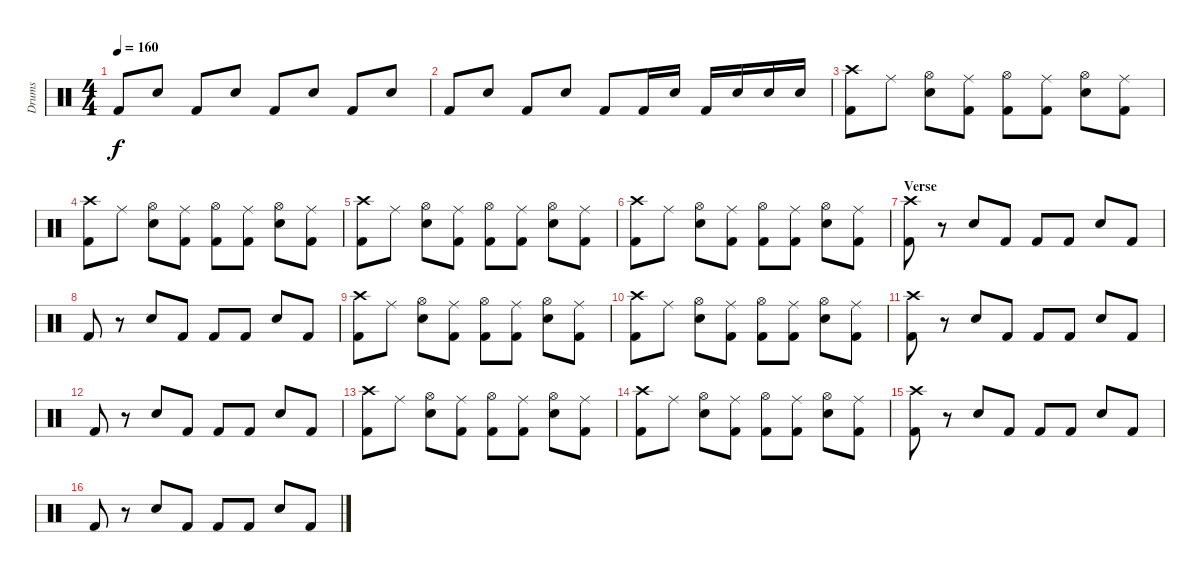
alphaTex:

\track ("Drums" "Drums") {instrument percussion}
\staff {score}
\articulation defaults
\ts (4 4)
\tempo 160
\clef neutral
\ks c "Kick (hit) 2".8{dy f} "Electric Snare (hit)".8 "Kick (hit) 2".8 "Electric Snare (hit)".8 "Kick (hit) 2".8 "Electric Snare (hit)".8 "Kick (hit) 2".8 "Electric Snare (hit)".8
|
"Kick (hit) 2".8 "Electric Snare (hit)".8 "Kick (hit) 2".8 "Electric Snare (hit)".8 "Kick (hit) 2".8 "Kick (hit) 2".16 "Electric Snare (hit)".16 "Kick (hit) 2".16 "Electric Snare (hit)".16 "Snare (hit) 2".16 "Electric Snare (hit)".16 |
("Kick (hit) 2" "Crash high (hit)").8 "Ride (middle)".8 ("Electric Snare (hit)" "Hi-Hat (open)").8 ("Kick (hit) 2" "Ride (middle)").8 ("Kick (hit) 2" "Hi-Hat (open)").8 ("Kick (hit) 2" "Ride (middle)").8 ("Electric Snare (hit)" "Hi-Hat (open)").8 ("Kick (hit) 2" "Ride (middle)").8 |
("Kick (hit) 2" "Crash high (hit)").8 "Ride (middle)".8 ("Electric Snare (hit)" "Hi-Hat (open)").8 ("Kick (hit) 2" "Ride (middle)").8 ("Kick (hit) 2" "Hi-Hat (open)").8 ("Kick (hit) 2" "Ride (middle)").8 ("Electric Snare (hit)" "Hi-Hat (open)").8 ("Kick (hit) 2" "Ride (middle)").8 |
("Kick (hit) 2" "Crash high (hit)").8 "Ride (middle)".8 ("Electric Snare (hit)" "Hi-Hat (open)").8 ("Kick (hit) 2" "Ride (middle)").8 ("Kick (hit) 2" "Hi-Hat (open)").8 ("Kick (hit) 2" "Ride (middle)").8 ("Electric Snare (hit)" "Hi-Hat (open)").8 ("Kick (hit) 2" "Ride (middle)").8 |
("Kick (hit) 2" "Crash high (hit)").8 "Ride (middle)".8 ("Electric Snare (hit)" "Hi-Hat (open)").8 ("Kick (hit) 2" "Ride (middle)").8 ("Kick (hit) 2" "Hi-Hat (open)").8 ("Kick (hit) 2" "Ride (middle)").8 ("Electric Snare (hit)" "Hi-Hat (open)").8 ("Kick (hit) 2" "Ride (middle)").8 |
\section ("" "Verse")
("Kick (hit) 2" "Crash high (hit)").8 r.8 "Electric Snare (hit)".8 "Kick (hit) 2".8 "Kick (hit) 2".8 "Kick (hit) 2".8 "Electric Snare (hit)".8 "Kick (hit) 2".8 |
"Kick (hit) 2".8 r.8 "Electric Snare (hit)".8 "Kick (hit) 2".8 "Kick (hit) 2".8 "Kick (hit) 2".8 "Electric Snare (hit)".8 "Kick (hit) 2".8 |
("Kick (hit) 2" "Crash high (hit)").8 "Ride (middle)".8 ("Electric Snare (hit)" "Hi-Hat (open)").8 ("Kick (hit) 2" "Ride (middle)").8 ("Kick (hit) 2" "Hi-Hat (open)").8 ("Kick (hit) 2" "Ride (middle)").8 ("Electric Snare (hit)" "Hi-Hat (open)").8 ("Kick (hit) 2" "Ride (middle)").8 |
("Kick (hit) 2" "Crash high (hit)").8 "Ride (middle)".8 ("Electric Snare (hit)" "Hi-Hat (open)").8 ("Kick (hit) 2" "Ride (middle)").8 ("Kick (hit) 2" "Hi-Hat (open)").8 ("Kick (hit) 2" "Ride (middle)").8 ("Electric Snare (hit)" "Hi-Hat (open)").8 ("Kick (hit) 2" "Ride (middle)").8 |
("Kick (hit) 2" "Crash high (hit)").8 r.8 "Electric Snare (hit)".8 "Kick (hit) 2".8 "Kick (hit) 2".8 "Kick (hit) 2".8 "Electric Snare (hit)".8 "Kick (hit) 2".8 |
"Kick (hit) 2".8 r.8 "Electric Snare (hit)".8 "Kick (hit) 2".8 "Kick (hit) 2".8 "Kick (hit) 2".8 "Electric Snare (hit)".8 "Kick (hit) 2".8 |
("Kick (hit) 2" "Crash high (hit)").8 "Ride (middle)".8 ("Electric Snare (hit)" "Hi-Hat (open)").8 ("Kick (hit) 2" "Ride (middle)").8 ("Kick (hit) 2" "Hi-Hat (open)").8 ("Kick (hit) 2" "Ride (middle)").8 ("Electric Snare (hit)" "Hi-Hat (open)").8 ("Kick (hit) 2" "Ride (middle)").8 |
("Kick (hit) 2" "Crash high (hit)").8 "Ride (middle)".8 ("Electric Snare (hit)" "Hi-Hat (open)").8 ("Kick (hit) 2" "Ride (middle)").8 ("Kick (hit) 2" "Hi-Hat (open)").8 ("Kick (hit) 2" "Ride (middle)").8 ("Electric Snare (hit)" "Hi-Hat (open)").8 ("Kick (hit) 2" "Ride (middle)").8 |
("Kick (hit) 2" "Crash high (hit)").8 r.8 "Electric Snare (hit)".8 "Kick (hit) 2".8 "Kick (hit) 2".8 "Kick (hit) 2".8 "Electric Snare (hit)".8 "Kick (hit) 2".8 |
"Kick (hit) 2".8 r.8 "Electric Snare (hit)".8 "Kick (hit) 2".8 "Kick (hit) 2".8 "Kick (hit) 2".8 "Electric Snare (hit)".8 "Kick (hit) 2".8
